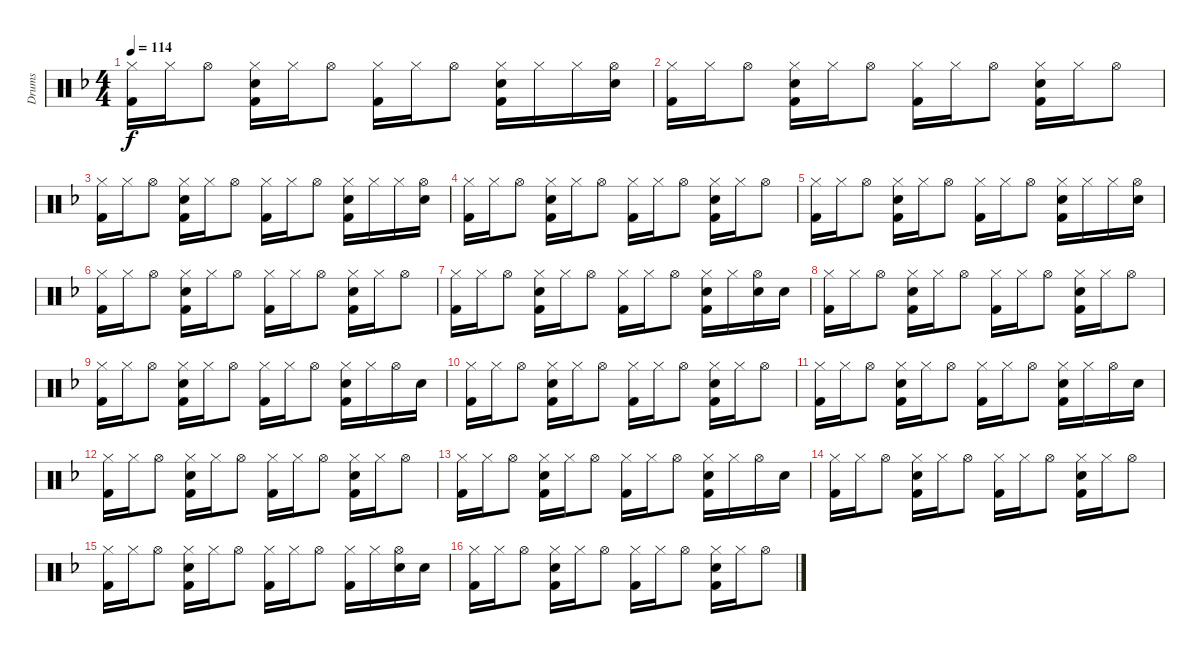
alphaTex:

\track ("Drums" "Drums") {instrument percussion}
\staff {score}
\articulation defaults
\ts (4 4)
\tempo 114
\clef neutral
\ks f
("Hi-Hat (closed)" "Kick (hit) 2").16{dy f} "Hi-Hat (closed)".16 "Hi-Hat (open)".8 ("Hi-Hat (closed)" "Electric Snare (hit)" "Kick (hit) 2").16 "Hi-Hat (closed)".16 "Hi-Hat (open)".8 ("Hi-Hat (closed)" "Kick (hit) 2").16 "Hi-Hat (closed)".16 "Hi-Hat (open)".8 ("Hi-Hat (closed)" "Electric Snare (hit)" "Kick (hit) 2").16 "Hi-Hat (closed)".16 "Hi-Hat (closed)".16 ("Hi-Hat (open)" "Electric Snare (hit)").16 |
("Hi-Hat (closed)" "Kick (hit) 2").16 "Hi-Hat (closed)".16 "Hi-Hat (open)".8 ("Hi-Hat (closed)" "Electric Snare (hit)" "Kick (hit) 2").16 "Hi-Hat (closed)".16 "Hi-Hat (open)".8 ("Hi-Hat (closed)" "Kick (hit) 2").16 "Hi-Hat (closed)".16 "Hi-Hat (open)".8 ("Hi-Hat (closed)" "Electric Snare (hit)" "Kick (hit) 2").16 "Hi-Hat (closed)".16 "Hi-Hat (open)".8 |
("Hi-Hat (closed)" "Kick (hit) 2").16 "Hi-Hat (closed)".16 "Hi-Hat (open)".8 ("Hi-Hat (closed)" "Electric Snare (hit)" "Kick (hit) 2").16 "Hi-Hat (closed)".16 "Hi-Hat (open)".8 ("Hi-Hat (closed)" "Kick (hit) 2").16 "Hi-Hat (closed)".16 "Hi-Hat (open)".8 ("Hi-Hat (closed)" "Electric Snare (hit)" "Kick (hit) 2").16 "Hi-Hat (closed)".16 "Hi-Hat (closed)".16 ("Hi-Hat (open)" "Electric Snare (hit)").16 |
("Hi-Hat (closed)" "Kick (hit) 2").16 "Hi-Hat (closed)".16 "Hi-Hat (open)".8 ("Hi-Hat (closed)" "Electric Snare (hit)" "Kick (hit) 2").16 "Hi-Hat (closed)".16 "Hi-Hat (open)".8 ("Hi-Hat (closed)" "Kick (hit) 2").16 "Hi-Hat (closed)".16 "Hi-Hat (open)".8 ("Hi-Hat (closed)" "Electric Snare (hit)" "Kick (hit) 2").16 "Hi-Hat (closed)".16 "Hi-Hat (open)".8 |
("Hi-Hat (closed)" "Kick (hit) 2").16 "Hi-Hat (closed)".16 "Hi-Hat (open)".8 ("Hi-Hat (closed)" "Electric Snare (hit)" "Kick (hit) 2").16 "Hi-Hat (closed)".16 "Hi-Hat (open)".8 ("Hi-Hat (closed)" "Kick (hit) 2").16 "Hi-Hat (closed)".16 "Hi-Hat (open)".8 ("Hi-Hat (closed)" "Electric Snare (hit)" "Kick (hit) 2").16 "Hi-Hat (closed)".16 "Hi-Hat (closed)".16 ("Hi-Hat (open)" "Electric Snare (hit)").16 |
("Hi-Hat (closed)" "Kick (hit) 2").16 "Hi-Hat (closed)".16 "Hi-Hat (open)".8 ("Hi-Hat (closed)" "Electric Snare (hit)" "Kick (hit) 2").16 "Hi-Hat (closed)".16 "Hi-Hat (open)".8 ("Hi-Hat (closed)" "Kick (hit) 2").16 "Hi-Hat (closed)".16 "Hi-Hat (open)".8 ("Hi-Hat (closed)" "Electric Snare (hit)" "Kick (hit) 2").16 "Hi-Hat (closed)".16 "Hi-Hat (open)".8 |
("Hi-Hat (closed)" "Kick (hit) 2").16 "Hi-Hat (closed)".16 "Hi-Hat (open)".8 ("Hi-Hat (closed)" "Electric Snare (hit)" "Kick (hit) 2").16 "Hi-Hat (closed)".16 "Hi-Hat (open)".8 ("Hi-Hat (closed)" "Kick (hit) 2").16 "Hi-Hat (closed)".16 "Hi-Hat (open)".8 ("Hi-Hat (closed)" "Electric Snare (hit)" "Kick (hit) 2").16 "Hi-Hat (closed)".16 ("Hi-Hat (open)" "Electric Snare (hit)").16 "Electric Snare (hit)".16 |
("Hi-Hat (closed)" "Kick (hit) 2").16 "Hi-Hat (closed)".16 "Hi-Hat (open)".8 ("Hi-Hat (closed)" "Electric Snare (hit)" "Kick (hit) 2").16 "Hi-Hat (closed)".16 "Hi-Hat (open)".8 ("Hi-Hat (closed)" "Kick (hit) 2").16 "Hi-Hat (closed)".16 "Hi-Hat (open)".8 ("Hi-Hat (closed)" "Electric Snare (hit)" "Kick (hit) 2").16 "Hi-Hat (closed)".16 "Hi-Hat (open)".8 |
("Hi-Hat (closed)" "Kick (hit) 2").16 "Hi-Hat (closed)".16 "Hi-Hat (open)".8 ("Hi-Hat (closed)" "Electric Snare (hit)" "Kick (hit) 2").16 "Hi-Hat (closed)".16 "Hi-Hat (open)".8 ("Hi-Hat (closed)" "Kick (hit) 2").16 "Hi-Hat (closed)".16 "Hi-Hat (open)".8 ("Hi-Hat (closed)" "Electric Snare (hit)" "Kick (hit) 2").16 "Hi-Hat (closed)".16 "Hi-Hat (open)".16 "Electric Snare (hit)".16 |
("Hi-Hat (closed)" "Kick (hit) 2").16 "Hi-Hat (closed)".16 "Hi-Hat (open)".8 ("Hi-Hat (closed)" "Electric Snare (hit)" "Kick (hit) 2").16 "Hi-Hat (closed)".16 "Hi-Hat (open)".8 ("Hi-Hat (closed)" "Kick (hit) 2").16 "Hi-Hat (closed)".16 "Hi-Hat (open)".8 ("Hi-Hat (closed)" "Electric Snare (hit)" "Kick (hit) 2").16 "Hi-Hat (closed)".16 "Hi-Hat (open)".8 |
("Hi-Hat (closed)" "Kick (hit) 2").16 "Hi-Hat (closed)".16 "Hi-Hat (open)".8 ("Hi-Hat (closed)" "Electric Snare (hit)" "Kick (hit) 2").16 "Hi-Hat (closed)".16 "Hi-Hat (open)".8 ("Hi-Hat (closed)" "Kick (hit) 2").16 "Hi-Hat (closed)".16 "Hi-Hat (open)".8 ("Hi-Hat (closed)" "Electric Snare (hit)" "Kick (hit) 2").16 "Hi-Hat (closed)".16 "Hi-Hat (open)".16 "Electric Snare (hit)".16 |
("Hi-Hat (closed)" "Kick (hit) 2").16 "Hi-Hat (closed)".16 "Hi-Hat (open)".8 ("Hi-Hat (closed)" "Electric Snare (hit)" "Kick (hit) 2").16 "Hi-Hat (closed)".16 "Hi-Hat (open)".8 ("Hi-Hat (closed)" "Kick (hit) 2").16 "Hi-Hat (closed)".16 "Hi-Hat (open)".8 ("Hi-Hat (closed)" "Electric Snare (hit)" "Kick (hit) 2").16 "Hi-Hat (closed)".16 "Hi-Hat (open)".8 |
("Hi-Hat (closed)" "Kick (hit) 2").16 "Hi-Hat (closed)".16 "Hi-Hat (open)".8 ("Hi-Hat (closed)" "Electric Snare (hit)" "Kick (hit) 2").16 "Hi-Hat (closed)".16 "Hi-Hat (open)".8 ("Hi-Hat (closed)" "Kick (hit) 2").16 "Hi-Hat (closed)".16 "Hi-Hat (open)".8 ("Hi-Hat (closed)" "Electric Snare (hit)" "Kick (hit) 2").16 "Hi-Hat (closed)".16 "Hi-Hat (open)".16 "Electric Snare (hit)".16 |
("Hi-Hat (closed)" "Kick (hit) 2").16 "Hi-Hat (closed)".16 "Hi-Hat (open)".8 ("Hi-Hat (closed)" "Electric Snare (hit)" "Kick (hit) 2").16 "Hi-Hat (closed)".16 "Hi-Hat (open)".8 ("Hi-Hat (closed)" "Kick (hit) 2").16 "Hi-Hat (closed)".16 "Hi-Hat (open)".8 ("Hi-Hat (closed)" "Electric Snare (hit)" "Kick (hit) 2").16 "Hi-Hat (closed)".16 "Hi-Hat (open)".8 |
("Hi-Hat (closed)" "Kick (hit) 2").16 "Hi-Hat (closed)".16 "Hi-Hat (open)".8 ("Hi-Hat (closed)" "Electric Snare (hit)" "Kick (hit) 2").16 "Hi-Hat (closed)".16 "Hi-Hat (open)".8 ("Hi-Hat (closed)" "Kick (hit) 2").16 "Hi-Hat (closed)".16 "Hi-Hat (open)".8 ("Hi-Hat (closed)" "Kick (hit) 2").16 "Hi-Hat (closed)".16 ("Hi-Hat (open)" "Electric Snare (hit)").16 "Electric Snare (hit)".16 |
("Hi-Hat (closed)" "Kick (hit) 2").16 "Hi-Hat (closed)".16 "Hi-Hat (open)".8 ("Hi-Hat (closed)" "Electric Snare (hit)" "Kick (hit) 2").16 "Hi-Hat (closed)".16 "Hi-Hat (open)".8 ("Hi-Hat (closed)" "Kick (hit) 2").16 "Hi-Hat (closed)".16 "Hi-Hat (open)".8 ("Hi-Hat (closed)" "Electric Snare (hit)" "Kick (hit) 2").16 "Hi-Hat (closed)".16 "Hi-Hat (open)".8
